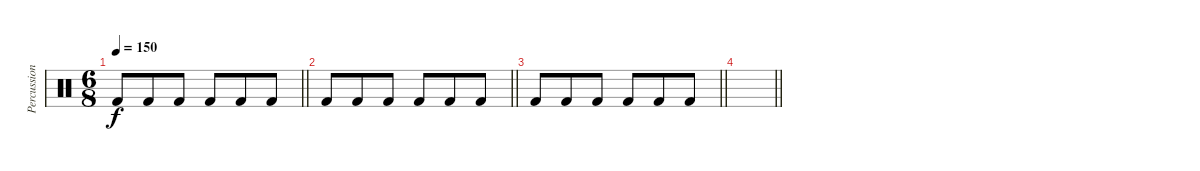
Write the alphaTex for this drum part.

\track ("Percussion" "Percussion") {instrument percussion}
\staff {score}
\articulation defaults
\ts (6 8)
\tempo 150
\clef neutral
\barLineRight lightlight
\ks c "Kick (hit) 2".8{dy f} "Kick (hit) 2".8 "Kick (hit) 2".8 "Kick (hit) 2".8 "Kick (hit) 2".8 "Kick (hit) 2".8
|
\barLineRight lightlight "Kick (hit) 2".8 "Kick (hit) 2".8 "Kick (hit) 2".8 "Kick (hit) 2".8 "Kick (hit) 2".8 "Kick (hit) 2".8
|
\barLineRight lightlight "Kick (hit) 2".8 "Kick (hit) 2".8 "Kick (hit) 2".8 "Kick (hit) 2".8 "Kick (hit) 2".8 "Kick (hit) 2".8
|
\barLineRight lightlight
